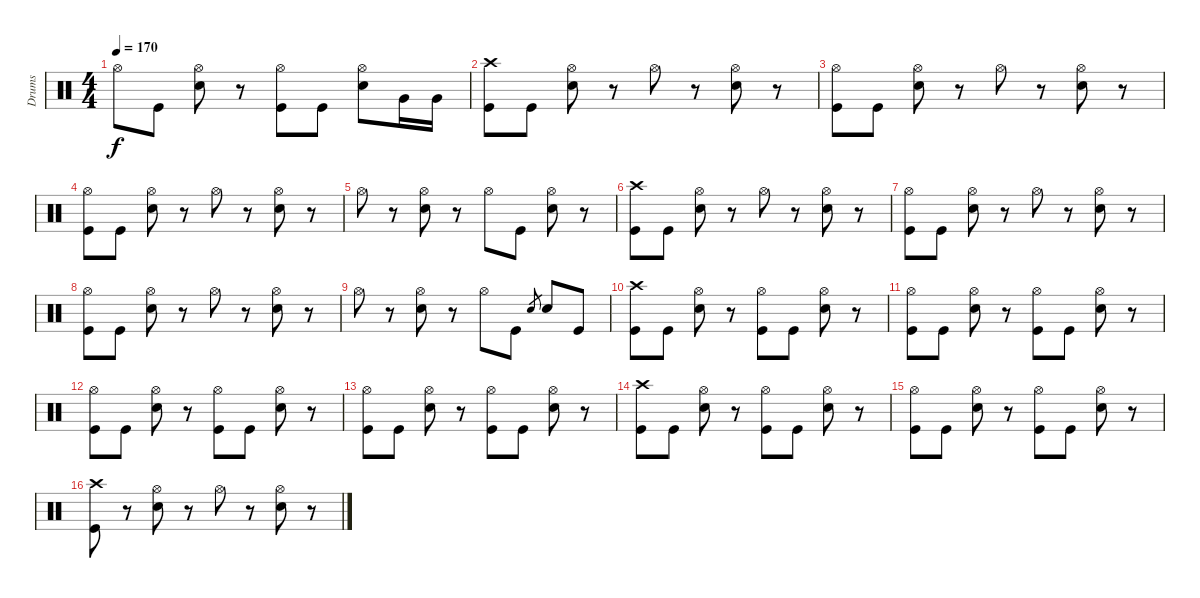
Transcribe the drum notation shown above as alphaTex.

\track ("Drums" "Drums") {instrument percussion}
\staff {score}
\articulation defaults
\ts (4 4)
\tempo 170
\clef neutral
\ks c "Hi-Hat (open)".8{dy f} "Kick (hit)".8
("Hi-Hat (open)" "Snare (hit) 2").8 r.8 ("Hi-Hat (open)" "Kick (hit)").8 "Kick (hit)".8 ("Hi-Hat (open)" "Snare (hit) 2").8 "Very Low Tom (hit)".16 "Very Low Tom (hit)".16 |
("Crash high (hit)" "Kick (hit)").8 "Kick (hit)".8 ("Hi-Hat (open)" "Snare (hit) 2").8 r.8 "Hi-Hat (open)".8 r.8 ("Hi-Hat (open)" "Snare (hit) 2").8 r.8 |
("Hi-Hat (open)" "Kick (hit)").8 "Kick (hit)".8 ("Hi-Hat (open)" "Snare (hit) 2").8 r.8 "Hi-Hat (open)".8 r.8 ("Hi-Hat (open)" "Snare (hit) 2").8 r.8 |
("Hi-Hat (open)" "Kick (hit)").8 "Kick (hit)".8 ("Hi-Hat (open)" "Snare (hit) 2").8 r.8 "Hi-Hat (open)".8 r.8 ("Hi-Hat (open)" "Snare (hit) 2").8 r.8 |
"Hi-Hat (open)".8 r.8 ("Hi-Hat (open)" "Snare (hit) 2").8 r.8 "Hi-Hat (open)".8 "Kick (hit)".8 ("Hi-Hat (open)" "Snare (hit) 2").8 r.8 |
("Crash high (hit)" "Kick (hit)").8 "Kick (hit)".8 ("Hi-Hat (open)" "Snare (hit) 2").8 r.8 "Hi-Hat (open)".8 r.8 ("Hi-Hat (open)" "Snare (hit) 2").8 r.8 |
("Hi-Hat (open)" "Kick (hit)").8 "Kick (hit)".8 ("Hi-Hat (open)" "Snare (hit) 2").8 r.8 "Hi-Hat (open)".8 r.8 ("Hi-Hat (open)" "Snare (hit) 2").8 r.8 |
("Hi-Hat (open)" "Kick (hit)").8 "Kick (hit)".8 ("Hi-Hat (open)" "Snare (hit) 2").8 r.8 "Hi-Hat (open)".8 r.8 ("Hi-Hat (open)" "Snare (hit) 2").8 r.8 |
"Hi-Hat (open)".8 r.8 ("Hi-Hat (open)" "Snare (hit) 2").8 r.8 "Hi-Hat (open)".8 "Kick (hit)".8 "Snare (hit) 2".8{gr} "Snare (hit) 2".8 "Kick (hit)".8 |
("Crash high (hit)" "Kick (hit)").8 "Kick (hit)".8 ("Hi-Hat (open)" "Snare (hit) 2").8 r.8 ("Hi-Hat (open)" "Kick (hit)").8 "Kick (hit)".8 ("Hi-Hat (open)" "Snare (hit) 2").8 r.8 |
("Hi-Hat (open)" "Kick (hit)").8 "Kick (hit)".8 ("Hi-Hat (open)" "Snare (hit) 2").8 r.8 ("Hi-Hat (open)" "Kick (hit)").8 "Kick (hit)".8 ("Hi-Hat (open)" "Snare (hit) 2").8 r.8 |
("Hi-Hat (open)" "Kick (hit)").8 "Kick (hit)".8 ("Hi-Hat (open)" "Snare (hit) 2").8 r.8 ("Hi-Hat (open)" "Kick (hit)").8 "Kick (hit)".8 ("Hi-Hat (open)" "Snare (hit) 2").8 r.8 |
("Hi-Hat (open)" "Kick (hit)").8 "Kick (hit)".8 ("Hi-Hat (open)" "Snare (hit) 2").8 r.8 ("Hi-Hat (open)" "Kick (hit)").8 "Kick (hit)".8 ("Hi-Hat (open)" "Snare (hit) 2").8 r.8 |
("Crash high (hit)" "Kick (hit)").8 "Kick (hit)".8 ("Hi-Hat (open)" "Snare (hit) 2").8 r.8 ("Hi-Hat (open)" "Kick (hit)").8 "Kick (hit)".8 ("Hi-Hat (open)" "Snare (hit) 2").8 r.8 |
("Hi-Hat (open)" "Kick (hit)").8 "Kick (hit)".8 ("Hi-Hat (open)" "Snare (hit) 2").8 r.8 ("Hi-Hat (open)" "Kick (hit)").8 "Kick (hit)".8 ("Hi-Hat (open)" "Snare (hit) 2").8 r.8 |
("Crash high (hit)" "Kick (hit)").8 r.8 ("Hi-Hat (open)" "Snare (hit) 2").8 r.8 "Hi-Hat (open)".8 r.8 ("Hi-Hat (open)" "Snare (hit) 2").8 r.8
